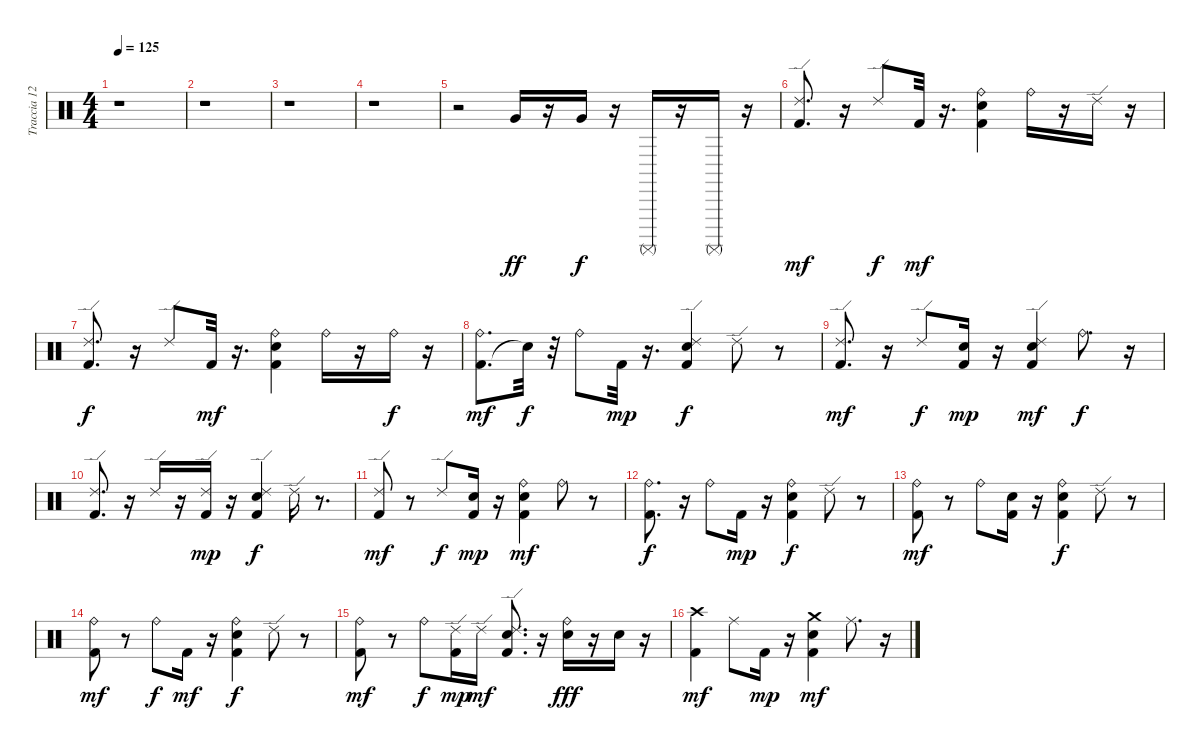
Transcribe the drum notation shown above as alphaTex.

\track ("Traccia 12-13-14-15-16-17-18" "Traccia 12") {instrument percussion}
\staff {score}
\articulation defaults
\ts (4 4)
\tempo 125
\clef neutral
\ks c
r.1{dy fff} |
r.1 |
r.1 |
r.1 |
r.2 "Very Low Tom (hit)".16{dy ff} r.16 "Very Low Tom (hit)".16{dy f} r.16 "Surdo (mute)".16 r.16 "Surdo (mute)".16 r.16 |
("Kick (hit) 2" "Ride (edge) 2").8{d dy mf} r.16 "Ride (edge) 2".8{dy f} "Kick (hit) 2".32{dy mf} r.16{d} ("Electric Snare (hit)" "Kick (hit) 2" "Ride (bell)").4 "Ride (bell)".16 r.16 "Ride (edge) 2".16 r.16 |
("Kick (hit) 2" "Ride (edge) 2").8{d dy f} r.16 "Ride (edge) 2".8 "Kick (hit) 2".32{dy mf} r.16{d} ("Electric Snare (hit)" "Kick (hit) 2" "Ride (bell)").4 "Ride (bell)".16 r.16 "Ride (bell)".16{dy f} r.16 |
("Kick (hit) 2" "Ride (bell)").8{d dy mf} "Snare (hit)"{t}.32{dy f} r.32 "Ride (bell)".8 "Kick (hit) 2".32{dy mp} r.16{d} ("Electric Snare (hit)" "Kick (hit) 2" "Ride (edge) 2").4{dy f} "Ride (edge) 2".8 r.8 |
("Kick (hit) 2" "Ride (edge) 2").8{d dy mf} r.16 "Ride (edge) 2".8{dy f} ("Electric Snare (hit)" "Kick (hit) 2").16{dy mp} r.16 ("Electric Snare (hit)" "Kick (hit) 2" "Ride (edge) 2").4{dy mf} "Ride (bell)".8{d dy f} r.16 |
("Kick (hit) 2" "Ride (edge) 2").8{d} r.16 "Ride (edge) 2".16 r.16 ("Kick (hit) 2" "Ride (edge) 2").16{dy mp} r.16 ("Electric Snare (hit)" "Kick (hit) 2" "Ride (edge) 2").4{dy f} "Ride (edge) 2".16 r.8{d} |
("Kick (hit) 2" "Ride (edge) 2").8{dy mf} r.8 "Ride (edge) 2".8{dy f} ("Electric Snare (hit)" "Kick (hit) 2").16{dy mp} r.16 ("Electric Snare (hit)" "Kick (hit) 2" "Ride (bell)").4{dy mf} "Ride (bell)".8 r.8 |
("Kick (hit) 2" "Ride (bell)").8{d dy f} r.16 "Ride (bell)".8 "Kick (hit) 2".16{dy mp} r.16 ("Electric Snare (hit)" "Kick (hit) 2" "Ride (bell)").4{dy f} "Ride (edge) 2".8 r.8 |
("Kick (hit) 2" "Ride (bell)").8{dy mf} r.8 "Ride (bell)".8 ("Electric Snare (hit)" "Kick (hit) 2").16 r.16 ("Electric Snare (hit)" "Kick (hit) 2" "Ride (bell)").4{dy f} "Ride (edge) 2".8 r.8 |
("Kick (hit) 2" "Ride (bell)").8{dy mf} r.8 "Ride (bell)".8{dy f} "Kick (hit) 2".16{dy mf} r.16 ("Electric Snare (hit)" "Kick (hit) 2" "Ride (bell)").4{dy f} "Ride (edge) 2".8 r.8 |
("Kick (hit) 2" "Ride (bell)").8{dy mf} r.8 "Ride (bell)".8{dy f} ("Kick (hit) 2" "Ride (edge) 2").16{dy mp} "Ride (edge) 2".16{dy mf} ("Electric Snare (hit)" "Kick (hit) 2" "Ride (edge) 2").8{d} r.16 ("Electric Snare (hit)" "Ride (bell)").16{dy fff} r.16 "Electric Snare (hit)".16 r.16 |
("Kick (hit) 2" "Crash high (hit)").4{dy mf} "Ride (middle)".8 "Kick (hit) 2".16{dy mp} r.16 ("Electric Snare (hit)" "Kick (hit) 2" "Crash medium (hit)").4{dy mf} "Ride (middle)".8{d} r.16
